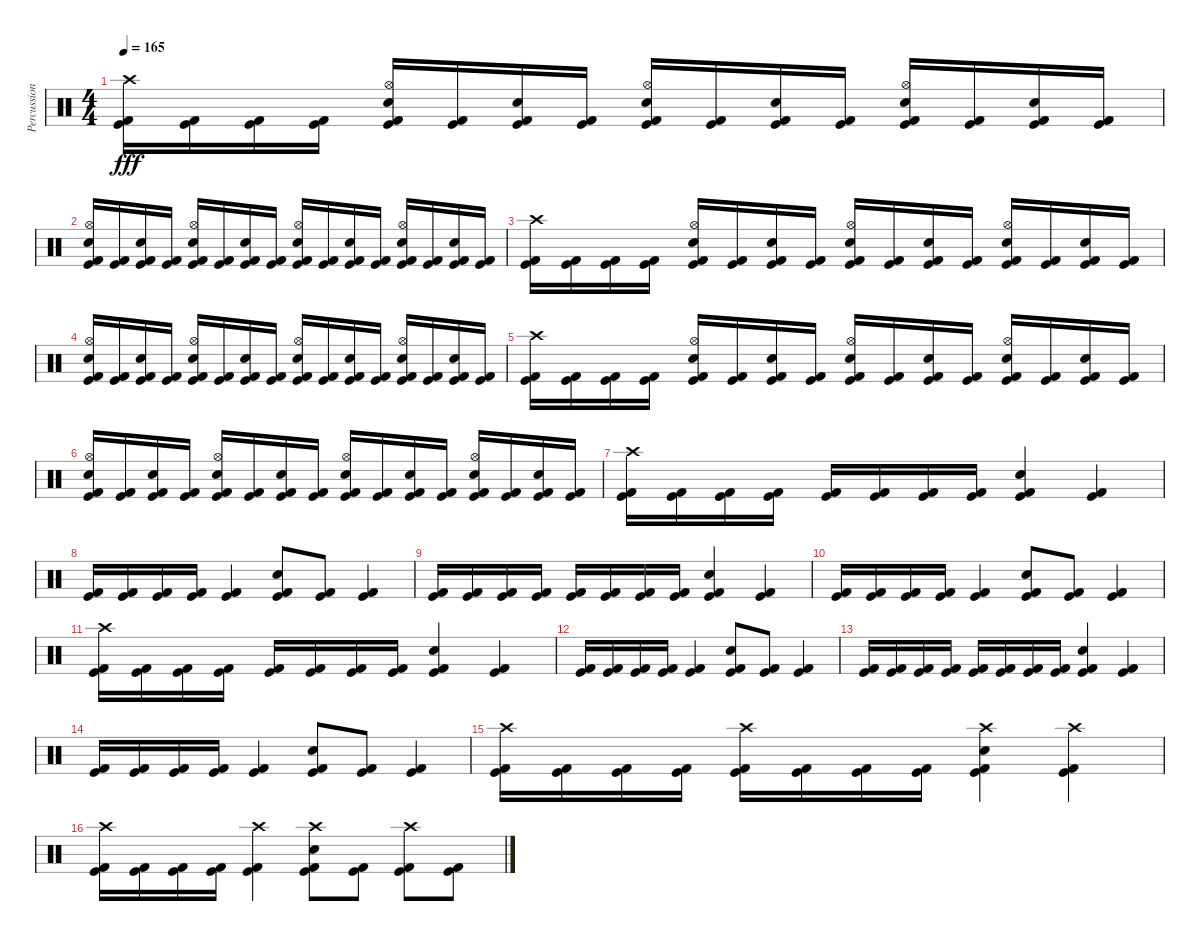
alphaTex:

\track ("Percussion" "Percussion") {instrument percussion}
\staff {score}
\articulation defaults
\ts (4 4)
\tempo 165
\clef neutral
\ks c
("Crash high (hit)" "Kick (hit) 2" "Kick (hit)").16{dy fff} ("Kick (hit) 2" "Kick (hit)").16 ("Kick (hit) 2" "Kick (hit)").16 ("Kick (hit) 2" "Kick (hit)").16 ("Hi-Hat (open)" "Electric Snare (hit)" "Kick (hit) 2" "Kick (hit)").16 ("Kick (hit) 2" "Kick (hit)").16 ("Electric Snare (hit)" "Kick (hit) 2" "Kick (hit)").16 ("Kick (hit) 2" "Kick (hit)").16 ("Hi-Hat (open)" "Electric Snare (hit)" "Kick (hit) 2" "Kick (hit)").16 ("Kick (hit) 2" "Kick (hit)").16 ("Electric Snare (hit)" "Kick (hit) 2" "Kick (hit)").16 ("Kick (hit) 2" "Kick (hit)").16 ("Hi-Hat (open)" "Electric Snare (hit)" "Kick (hit) 2" "Kick (hit)").16 ("Kick (hit) 2" "Kick (hit)").16 ("Electric Snare (hit)" "Kick (hit) 2" "Kick (hit)").16 ("Kick (hit) 2" "Kick (hit)").16 |
("Hi-Hat (open)" "Electric Snare (hit)" "Kick (hit) 2" "Kick (hit)").16 ("Kick (hit) 2" "Kick (hit)").16 ("Electric Snare (hit)" "Kick (hit) 2" "Kick (hit)").16 ("Kick (hit) 2" "Kick (hit)").16 ("Hi-Hat (open)" "Electric Snare (hit)" "Kick (hit) 2" "Kick (hit)").16 ("Kick (hit) 2" "Kick (hit)").16 ("Electric Snare (hit)" "Kick (hit) 2" "Kick (hit)").16 ("Kick (hit) 2" "Kick (hit)").16 ("Hi-Hat (open)" "Electric Snare (hit)" "Kick (hit) 2" "Kick (hit)").16 ("Kick (hit) 2" "Kick (hit)").16 ("Electric Snare (hit)" "Kick (hit) 2" "Kick (hit)").16 ("Kick (hit) 2" "Kick (hit)").16 ("Hi-Hat (open)" "Electric Snare (hit)" "Kick (hit) 2" "Kick (hit)").16 ("Kick (hit) 2" "Kick (hit)").16 ("Electric Snare (hit)" "Kick (hit) 2" "Kick (hit)").16 ("Kick (hit) 2" "Kick (hit)").16 |
("Crash high (hit)" "Kick (hit) 2" "Kick (hit)").16 ("Kick (hit) 2" "Kick (hit)").16 ("Kick (hit) 2" "Kick (hit)").16 ("Kick (hit) 2" "Kick (hit)").16 ("Hi-Hat (open)" "Electric Snare (hit)" "Kick (hit) 2" "Kick (hit)").16 ("Kick (hit) 2" "Kick (hit)").16 ("Electric Snare (hit)" "Kick (hit) 2" "Kick (hit)").16 ("Kick (hit) 2" "Kick (hit)").16 ("Hi-Hat (open)" "Electric Snare (hit)" "Kick (hit) 2" "Kick (hit)").16 ("Kick (hit) 2" "Kick (hit)").16 ("Electric Snare (hit)" "Kick (hit) 2" "Kick (hit)").16 ("Kick (hit) 2" "Kick (hit)").16 ("Hi-Hat (open)" "Electric Snare (hit)" "Kick (hit) 2" "Kick (hit)").16 ("Kick (hit) 2" "Kick (hit)").16 ("Electric Snare (hit)" "Kick (hit) 2" "Kick (hit)").16 ("Kick (hit) 2" "Kick (hit)").16 |
("Hi-Hat (open)" "Electric Snare (hit)" "Kick (hit) 2" "Kick (hit)").16 ("Kick (hit) 2" "Kick (hit)").16 ("Electric Snare (hit)" "Kick (hit) 2" "Kick (hit)").16 ("Kick (hit) 2" "Kick (hit)").16 ("Hi-Hat (open)" "Electric Snare (hit)" "Kick (hit) 2" "Kick (hit)").16 ("Kick (hit) 2" "Kick (hit)").16 ("Electric Snare (hit)" "Kick (hit) 2" "Kick (hit)").16 ("Kick (hit) 2" "Kick (hit)").16 ("Hi-Hat (open)" "Electric Snare (hit)" "Kick (hit) 2" "Kick (hit)").16 ("Kick (hit) 2" "Kick (hit)").16 ("Electric Snare (hit)" "Kick (hit) 2" "Kick (hit)").16 ("Kick (hit) 2" "Kick (hit)").16 ("Hi-Hat (open)" "Electric Snare (hit)" "Kick (hit) 2" "Kick (hit)").16 ("Kick (hit) 2" "Kick (hit)").16 ("Electric Snare (hit)" "Kick (hit) 2" "Kick (hit)").16 ("Kick (hit) 2" "Kick (hit)").16 |
("Crash high (hit)" "Kick (hit) 2" "Kick (hit)").16 ("Kick (hit) 2" "Kick (hit)").16 ("Kick (hit) 2" "Kick (hit)").16 ("Kick (hit) 2" "Kick (hit)").16 ("Hi-Hat (open)" "Electric Snare (hit)" "Kick (hit) 2" "Kick (hit)").16 ("Kick (hit) 2" "Kick (hit)").16 ("Electric Snare (hit)" "Kick (hit) 2" "Kick (hit)").16 ("Kick (hit) 2" "Kick (hit)").16 ("Hi-Hat (open)" "Electric Snare (hit)" "Kick (hit) 2" "Kick (hit)").16 ("Kick (hit) 2" "Kick (hit)").16 ("Electric Snare (hit)" "Kick (hit) 2" "Kick (hit)").16 ("Kick (hit) 2" "Kick (hit)").16 ("Hi-Hat (open)" "Electric Snare (hit)" "Kick (hit) 2" "Kick (hit)").16 ("Kick (hit) 2" "Kick (hit)").16 ("Electric Snare (hit)" "Kick (hit) 2" "Kick (hit)").16 ("Kick (hit) 2" "Kick (hit)").16 |
("Hi-Hat (open)" "Electric Snare (hit)" "Kick (hit) 2" "Kick (hit)").16 ("Kick (hit) 2" "Kick (hit)").16 ("Electric Snare (hit)" "Kick (hit) 2" "Kick (hit)").16 ("Kick (hit) 2" "Kick (hit)").16 ("Hi-Hat (open)" "Electric Snare (hit)" "Kick (hit) 2" "Kick (hit)").16 ("Kick (hit) 2" "Kick (hit)").16 ("Electric Snare (hit)" "Kick (hit) 2" "Kick (hit)").16 ("Kick (hit) 2" "Kick (hit)").16 ("Hi-Hat (open)" "Electric Snare (hit)" "Kick (hit) 2" "Kick (hit)").16 ("Kick (hit) 2" "Kick (hit)").16 ("Electric Snare (hit)" "Kick (hit) 2" "Kick (hit)").16 ("Kick (hit) 2" "Kick (hit)").16 ("Hi-Hat (open)" "Electric Snare (hit)" "Kick (hit) 2" "Kick (hit)").16 ("Kick (hit) 2" "Kick (hit)").16 ("Electric Snare (hit)" "Kick (hit) 2" "Kick (hit)").16 ("Kick (hit) 2" "Kick (hit)").16 |
("Crash high (hit)" "Kick (hit) 2" "Kick (hit)").16 ("Kick (hit) 2" "Kick (hit)").16 ("Kick (hit) 2" "Kick (hit)").16 ("Kick (hit) 2" "Kick (hit)").16 ("Kick (hit) 2" "Kick (hit)").16 ("Kick (hit) 2" "Kick (hit)").16 ("Kick (hit) 2" "Kick (hit)").16 ("Kick (hit) 2" "Kick (hit)").16 ("Electric Snare (hit)" "Kick (hit) 2" "Kick (hit)").4 ("Kick (hit) 2" "Kick (hit)").4 |
("Kick (hit) 2" "Kick (hit)").16 ("Kick (hit) 2" "Kick (hit)").16 ("Kick (hit) 2" "Kick (hit)").16 ("Kick (hit) 2" "Kick (hit)").16 ("Kick (hit) 2" "Kick (hit)").4 ("Electric Snare (hit)" "Kick (hit) 2" "Kick (hit)").8 ("Kick (hit) 2" "Kick (hit)").8 ("Kick (hit) 2" "Kick (hit)").4 |
("Kick (hit) 2" "Kick (hit)").16 ("Kick (hit) 2" "Kick (hit)").16 ("Kick (hit) 2" "Kick (hit)").16 ("Kick (hit) 2" "Kick (hit)").16 ("Kick (hit) 2" "Kick (hit)").16 ("Kick (hit) 2" "Kick (hit)").16 ("Kick (hit) 2" "Kick (hit)").16 ("Kick (hit) 2" "Kick (hit)").16 ("Electric Snare (hit)" "Kick (hit) 2" "Kick (hit)").4 ("Kick (hit) 2" "Kick (hit)").4 |
("Kick (hit) 2" "Kick (hit)").16 ("Kick (hit) 2" "Kick (hit)").16 ("Kick (hit) 2" "Kick (hit)").16 ("Kick (hit) 2" "Kick (hit)").16 ("Kick (hit) 2" "Kick (hit)").4 ("Electric Snare (hit)" "Kick (hit) 2" "Kick (hit)").8 ("Kick (hit) 2" "Kick (hit)").8 ("Kick (hit) 2" "Kick (hit)").4 |
("Crash high (hit)" "Kick (hit) 2" "Kick (hit)").16 ("Kick (hit) 2" "Kick (hit)").16 ("Kick (hit) 2" "Kick (hit)").16 ("Kick (hit) 2" "Kick (hit)").16 ("Kick (hit) 2" "Kick (hit)").16 ("Kick (hit) 2" "Kick (hit)").16 ("Kick (hit) 2" "Kick (hit)").16 ("Kick (hit) 2" "Kick (hit)").16 ("Electric Snare (hit)" "Kick (hit) 2" "Kick (hit)").4 ("Kick (hit) 2" "Kick (hit)").4 |
("Kick (hit) 2" "Kick (hit)").16 ("Kick (hit) 2" "Kick (hit)").16 ("Kick (hit) 2" "Kick (hit)").16 ("Kick (hit) 2" "Kick (hit)").16 ("Kick (hit) 2" "Kick (hit)").4 ("Electric Snare (hit)" "Kick (hit) 2" "Kick (hit)").8 ("Kick (hit) 2" "Kick (hit)").8 ("Kick (hit) 2" "Kick (hit)").4 |
("Kick (hit) 2" "Kick (hit)").16 ("Kick (hit) 2" "Kick (hit)").16 ("Kick (hit) 2" "Kick (hit)").16 ("Kick (hit) 2" "Kick (hit)").16 ("Kick (hit) 2" "Kick (hit)").16 ("Kick (hit) 2" "Kick (hit)").16 ("Kick (hit) 2" "Kick (hit)").16 ("Kick (hit) 2" "Kick (hit)").16 ("Electric Snare (hit)" "Kick (hit) 2" "Kick (hit)").4 ("Kick (hit) 2" "Kick (hit)").4 |
("Kick (hit) 2" "Kick (hit)").16 ("Kick (hit) 2" "Kick (hit)").16 ("Kick (hit) 2" "Kick (hit)").16 ("Kick (hit) 2" "Kick (hit)").16 ("Kick (hit) 2" "Kick (hit)").4 ("Electric Snare (hit)" "Kick (hit) 2" "Kick (hit)").8 ("Kick (hit) 2" "Kick (hit)").8 ("Kick (hit) 2" "Kick (hit)").4 |
("Crash high (hit)" "Kick (hit) 2" "Kick (hit)").16 ("Kick (hit) 2" "Kick (hit)").16 ("Kick (hit) 2" "Kick (hit)").16 ("Kick (hit) 2" "Kick (hit)").16 ("Crash high (hit)" "Kick (hit) 2" "Kick (hit)").16 ("Kick (hit) 2" "Kick (hit)").16 ("Kick (hit) 2" "Kick (hit)").16 ("Kick (hit) 2" "Kick (hit)").16 ("Electric Snare (hit)" "Crash high (hit)" "Kick (hit) 2" "Kick (hit)").4 ("Crash high (hit)" "Kick (hit) 2" "Kick (hit)").4 |
("Crash high (hit)" "Kick (hit) 2" "Kick (hit)").16 ("Kick (hit) 2" "Kick (hit)").16 ("Kick (hit) 2" "Kick (hit)").16 ("Kick (hit) 2" "Kick (hit)").16 ("Crash high (hit)" "Kick (hit) 2" "Kick (hit)").4 ("Electric Snare (hit)" "Crash high (hit)" "Kick (hit) 2" "Kick (hit)").8 ("Kick (hit) 2" "Kick (hit)").8 ("Crash high (hit)" "Kick (hit) 2" "Kick (hit)").8 ("Kick (hit) 2" "Kick (hit)").8
